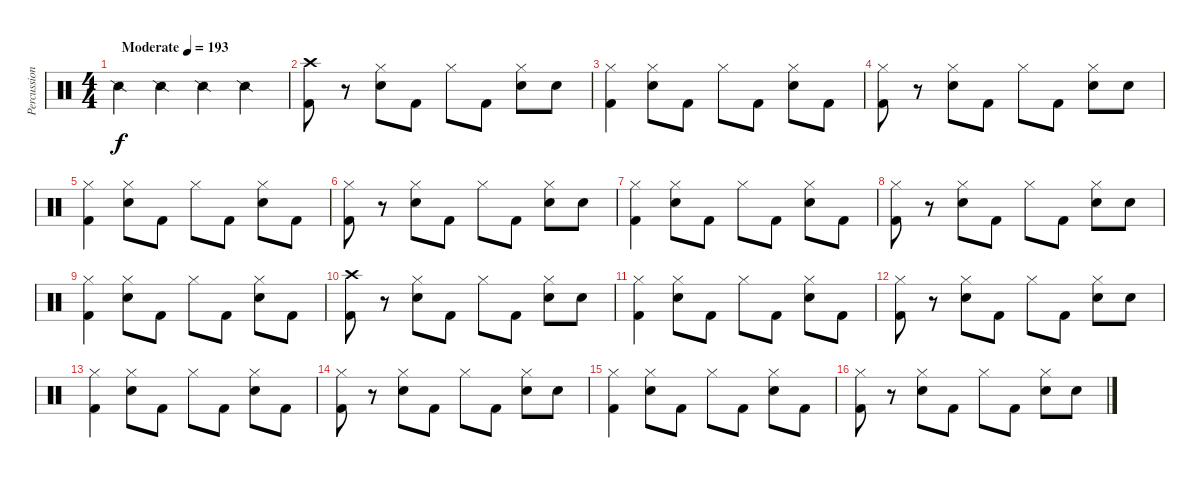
\track ("Percussioni" "Percussion") {instrument percussion}
\staff {score}
\articulation defaults
\ts (4 4)
\tempo (193 "Moderate")
\clef neutral
\ks c "Snare (side stick) 2".4{dy f} "Snare (side stick) 2".4 "Snare (side stick) 2".4 "Snare (side stick) 2".4
|
("Kick (hit) 2" "Crash high (hit)").8 r.8 ("Electric Snare (hit)" "Hi-Hat (closed)").8 "Kick (hit) 2".8 "Hi-Hat (closed)".8 "Kick (hit) 2".8 ("Electric Snare (hit)" "Hi-Hat (closed)").8 "Electric Snare (hit)".8 |
("Kick (hit) 2" "Hi-Hat (closed)").4 ("Electric Snare (hit)" "Hi-Hat (closed)").8 "Kick (hit) 2".8 "Hi-Hat (closed)".8 "Kick (hit) 2".8 ("Electric Snare (hit)" "Hi-Hat (closed)").8 "Kick (hit) 2".8 |
("Kick (hit) 2" "Hi-Hat (closed)").8 r.8 ("Electric Snare (hit)" "Hi-Hat (closed)").8 "Kick (hit) 2".8 "Hi-Hat (closed)".8 "Kick (hit) 2".8 ("Electric Snare (hit)" "Hi-Hat (closed)").8 "Electric Snare (hit)".8 |
("Kick (hit) 2" "Hi-Hat (closed)").4 ("Electric Snare (hit)" "Hi-Hat (closed)").8 "Kick (hit) 2".8 "Hi-Hat (closed)".8 "Kick (hit) 2".8 ("Electric Snare (hit)" "Hi-Hat (closed)").8 "Kick (hit) 2".8 |
("Kick (hit) 2" "Hi-Hat (closed)").8 r.8 ("Electric Snare (hit)" "Hi-Hat (closed)").8 "Kick (hit) 2".8 "Hi-Hat (closed)".8 "Kick (hit) 2".8 ("Electric Snare (hit)" "Hi-Hat (closed)").8 "Electric Snare (hit)".8 |
("Kick (hit) 2" "Hi-Hat (closed)").4 ("Electric Snare (hit)" "Hi-Hat (closed)").8 "Kick (hit) 2".8 "Hi-Hat (closed)".8 "Kick (hit) 2".8 ("Electric Snare (hit)" "Hi-Hat (closed)").8 "Kick (hit) 2".8 |
("Kick (hit) 2" "Hi-Hat (closed)").8 r.8 ("Electric Snare (hit)" "Hi-Hat (closed)").8 "Kick (hit) 2".8 "Hi-Hat (closed)".8 "Kick (hit) 2".8 ("Electric Snare (hit)" "Hi-Hat (closed)").8 "Electric Snare (hit)".8 |
("Kick (hit) 2" "Hi-Hat (closed)").4 ("Electric Snare (hit)" "Hi-Hat (closed)").8 "Kick (hit) 2".8 "Hi-Hat (closed)".8 "Kick (hit) 2".8 ("Electric Snare (hit)" "Hi-Hat (closed)").8 "Kick (hit) 2".8 |
("Kick (hit) 2" "Crash high (hit)").8 r.8 ("Electric Snare (hit)" "Hi-Hat (closed)").8 "Kick (hit) 2".8 "Hi-Hat (closed)".8 "Kick (hit) 2".8 ("Electric Snare (hit)" "Hi-Hat (closed)").8 "Electric Snare (hit)".8 |
("Kick (hit) 2" "Hi-Hat (closed)").4 ("Electric Snare (hit)" "Hi-Hat (closed)").8 "Kick (hit) 2".8 "Hi-Hat (closed)".8 "Kick (hit) 2".8 ("Electric Snare (hit)" "Hi-Hat (closed)").8 "Kick (hit) 2".8 |
("Kick (hit) 2" "Hi-Hat (closed)").8 r.8 ("Electric Snare (hit)" "Hi-Hat (closed)").8 "Kick (hit) 2".8 "Hi-Hat (closed)".8 "Kick (hit) 2".8 ("Electric Snare (hit)" "Hi-Hat (closed)").8 "Electric Snare (hit)".8 |
("Kick (hit) 2" "Hi-Hat (closed)").4 ("Electric Snare (hit)" "Hi-Hat (closed)").8 "Kick (hit) 2".8 "Hi-Hat (closed)".8 "Kick (hit) 2".8 ("Electric Snare (hit)" "Hi-Hat (closed)").8 "Kick (hit) 2".8 |
("Kick (hit) 2" "Hi-Hat (closed)").8 r.8 ("Electric Snare (hit)" "Hi-Hat (closed)").8 "Kick (hit) 2".8 "Hi-Hat (closed)".8 "Kick (hit) 2".8 ("Electric Snare (hit)" "Hi-Hat (closed)").8 "Electric Snare (hit)".8 |
("Kick (hit) 2" "Hi-Hat (closed)").4 ("Electric Snare (hit)" "Hi-Hat (closed)").8 "Kick (hit) 2".8 "Hi-Hat (closed)".8 "Kick (hit) 2".8 ("Electric Snare (hit)" "Hi-Hat (closed)").8 "Kick (hit) 2".8 |
("Kick (hit) 2" "Hi-Hat (closed)").8 r.8 ("Electric Snare (hit)" "Hi-Hat (closed)").8 "Kick (hit) 2".8 "Hi-Hat (closed)".8 "Kick (hit) 2".8 ("Electric Snare (hit)" "Hi-Hat (closed)").8 "Electric Snare (hit)".8
